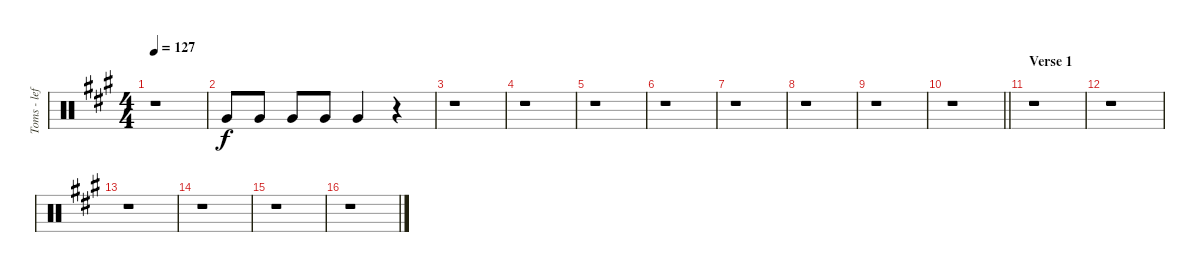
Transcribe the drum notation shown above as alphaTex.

\track ("Toms - left" "Toms - lef") {instrument percussion}
\staff {score}
\articulation defaults
\ts (4 4)
\tempo 127
\clef neutral
\ks a
r.1{dy f} |
"Very Low Tom (hit)".8{beam Up} "Very Low Tom (hit)".8{beam Up} "Very Low Tom (hit)".8{beam Up} "Very Low Tom (hit)".8{beam Up} "Very Low Tom (hit)".4{beam Up} r.4 |
r.1 |
r.1 |
r.1 |
r.1 |
r.1 |
r.1 |
r.1 |
\barLineRight lightlight
r.1 |
\section ("" "Verse 1")
r.1 |
r.1 |
r.1 |
r.1 |
r.1 |
r.1
